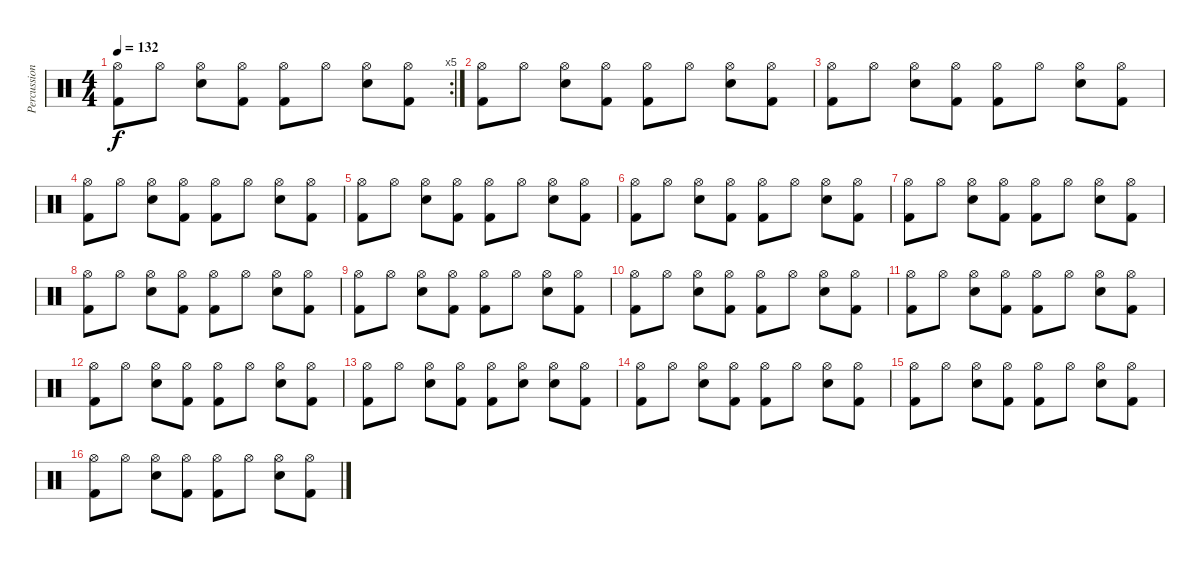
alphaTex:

\track ("Percussion" "Percussion") {instrument percussion}
\staff {score}
\articulation defaults
\rc 5
\ts (4 4)
\tempo 132
\clef neutral
\ks c
("Hi-Hat (open)" "Kick (hit) 2").8{dy f} "Hi-Hat (open)".8 ("Hi-Hat (open)" "Electric Snare (hit)").8 ("Hi-Hat (open)" "Kick (hit) 2").8 ("Hi-Hat (open)" "Kick (hit) 2").8 "Hi-Hat (open)".8 ("Hi-Hat (open)" "Electric Snare (hit)").8 ("Hi-Hat (open)" "Kick (hit) 2").8 |
("Hi-Hat (open)" "Kick (hit) 2").8 "Hi-Hat (open)".8 ("Hi-Hat (open)" "Electric Snare (hit)").8 ("Hi-Hat (open)" "Kick (hit) 2").8 ("Hi-Hat (open)" "Kick (hit) 2").8 "Hi-Hat (open)".8 ("Hi-Hat (open)" "Electric Snare (hit)").8 ("Hi-Hat (open)" "Kick (hit) 2").8 |
("Hi-Hat (open)" "Kick (hit) 2").8 "Hi-Hat (open)".8 ("Hi-Hat (open)" "Electric Snare (hit)").8 ("Hi-Hat (open)" "Kick (hit) 2").8 ("Hi-Hat (open)" "Kick (hit) 2").8 "Hi-Hat (open)".8 ("Hi-Hat (open)" "Electric Snare (hit)").8 ("Hi-Hat (open)" "Kick (hit) 2").8 |
("Hi-Hat (open)" "Kick (hit) 2").8 "Hi-Hat (open)".8 ("Hi-Hat (open)" "Electric Snare (hit)").8 ("Hi-Hat (open)" "Kick (hit) 2").8 ("Hi-Hat (open)" "Kick (hit) 2").8 "Hi-Hat (open)".8 ("Hi-Hat (open)" "Electric Snare (hit)").8 ("Hi-Hat (open)" "Kick (hit) 2").8 |
("Hi-Hat (open)" "Kick (hit) 2").8 "Hi-Hat (open)".8 ("Hi-Hat (open)" "Electric Snare (hit)").8 ("Hi-Hat (open)" "Kick (hit) 2").8 ("Hi-Hat (open)" "Kick (hit) 2").8 "Hi-Hat (open)".8 ("Hi-Hat (open)" "Electric Snare (hit)").8 ("Hi-Hat (open)" "Kick (hit) 2").8 |
("Hi-Hat (open)" "Kick (hit) 2").8 "Hi-Hat (open)".8 ("Hi-Hat (open)" "Electric Snare (hit)").8 ("Hi-Hat (open)" "Kick (hit) 2").8 ("Hi-Hat (open)" "Kick (hit) 2").8 "Hi-Hat (open)".8 ("Hi-Hat (open)" "Electric Snare (hit)").8 ("Hi-Hat (open)" "Kick (hit) 2").8 |
("Hi-Hat (open)" "Kick (hit) 2").8 "Hi-Hat (open)".8 ("Hi-Hat (open)" "Electric Snare (hit)").8 ("Hi-Hat (open)" "Kick (hit) 2").8 ("Hi-Hat (open)" "Kick (hit) 2").8 "Hi-Hat (open)".8 ("Hi-Hat (open)" "Electric Snare (hit)").8 ("Hi-Hat (open)" "Kick (hit) 2").8 |
("Hi-Hat (open)" "Kick (hit) 2").8 "Hi-Hat (open)".8 ("Hi-Hat (open)" "Electric Snare (hit)").8 ("Hi-Hat (open)" "Kick (hit) 2").8 ("Hi-Hat (open)" "Kick (hit) 2").8 "Hi-Hat (open)".8 ("Hi-Hat (open)" "Electric Snare (hit)").8 ("Hi-Hat (open)" "Kick (hit) 2").8 |
("Hi-Hat (open)" "Kick (hit) 2").8 "Hi-Hat (open)".8 ("Hi-Hat (open)" "Electric Snare (hit)").8 ("Hi-Hat (open)" "Kick (hit) 2").8 ("Hi-Hat (open)" "Kick (hit) 2").8 "Hi-Hat (open)".8 ("Hi-Hat (open)" "Electric Snare (hit)").8 ("Hi-Hat (open)" "Kick (hit) 2").8 |
("Hi-Hat (open)" "Kick (hit) 2").8 "Hi-Hat (open)".8 ("Hi-Hat (open)" "Electric Snare (hit)").8 ("Hi-Hat (open)" "Kick (hit) 2").8 ("Hi-Hat (open)" "Kick (hit) 2").8 "Hi-Hat (open)".8 ("Hi-Hat (open)" "Electric Snare (hit)").8 ("Hi-Hat (open)" "Kick (hit) 2").8 |
("Hi-Hat (open)" "Kick (hit) 2").8 "Hi-Hat (open)".8 ("Hi-Hat (open)" "Electric Snare (hit)").8 ("Hi-Hat (open)" "Kick (hit) 2").8 ("Hi-Hat (open)" "Kick (hit) 2").8 "Hi-Hat (open)".8 ("Hi-Hat (open)" "Electric Snare (hit)").8 ("Hi-Hat (open)" "Kick (hit) 2").8 |
("Hi-Hat (open)" "Kick (hit) 2").8 "Hi-Hat (open)".8 ("Hi-Hat (open)" "Electric Snare (hit)").8 ("Hi-Hat (open)" "Kick (hit) 2").8 ("Hi-Hat (open)" "Kick (hit) 2").8 "Hi-Hat (open)".8 ("Hi-Hat (open)" "Electric Snare (hit)").8 ("Hi-Hat (open)" "Kick (hit) 2").8 |
("Hi-Hat (open)" "Kick (hit) 2").8 "Hi-Hat (open)".8 ("Hi-Hat (open)" "Electric Snare (hit)").8 ("Hi-Hat (open)" "Kick (hit) 2").8 ("Hi-Hat (open)" "Kick (hit) 2").8 ("Hi-Hat (open)" "Electric Snare (hit)").8 ("Hi-Hat (open)" "Electric Snare (hit)").8 ("Hi-Hat (open)" "Kick (hit) 2").8 |
("Hi-Hat (open)" "Kick (hit) 2").8 "Hi-Hat (open)".8 ("Hi-Hat (open)" "Electric Snare (hit)").8 ("Hi-Hat (open)" "Kick (hit) 2").8 ("Hi-Hat (open)" "Kick (hit) 2").8 "Hi-Hat (open)".8 ("Hi-Hat (open)" "Electric Snare (hit)").8 ("Hi-Hat (open)" "Kick (hit) 2").8 |
("Hi-Hat (open)" "Kick (hit) 2").8 "Hi-Hat (open)".8 ("Hi-Hat (open)" "Electric Snare (hit)").8 ("Hi-Hat (open)" "Kick (hit) 2").8 ("Hi-Hat (open)" "Kick (hit) 2").8 "Hi-Hat (open)".8 ("Hi-Hat (open)" "Electric Snare (hit)").8 ("Hi-Hat (open)" "Kick (hit) 2").8 |
("Hi-Hat (open)" "Kick (hit) 2").8 "Hi-Hat (open)".8 ("Hi-Hat (open)" "Electric Snare (hit)").8 ("Hi-Hat (open)" "Kick (hit) 2").8 ("Hi-Hat (open)" "Kick (hit) 2").8 "Hi-Hat (open)".8 ("Hi-Hat (open)" "Electric Snare (hit)").8 ("Hi-Hat (open)" "Kick (hit) 2").8
